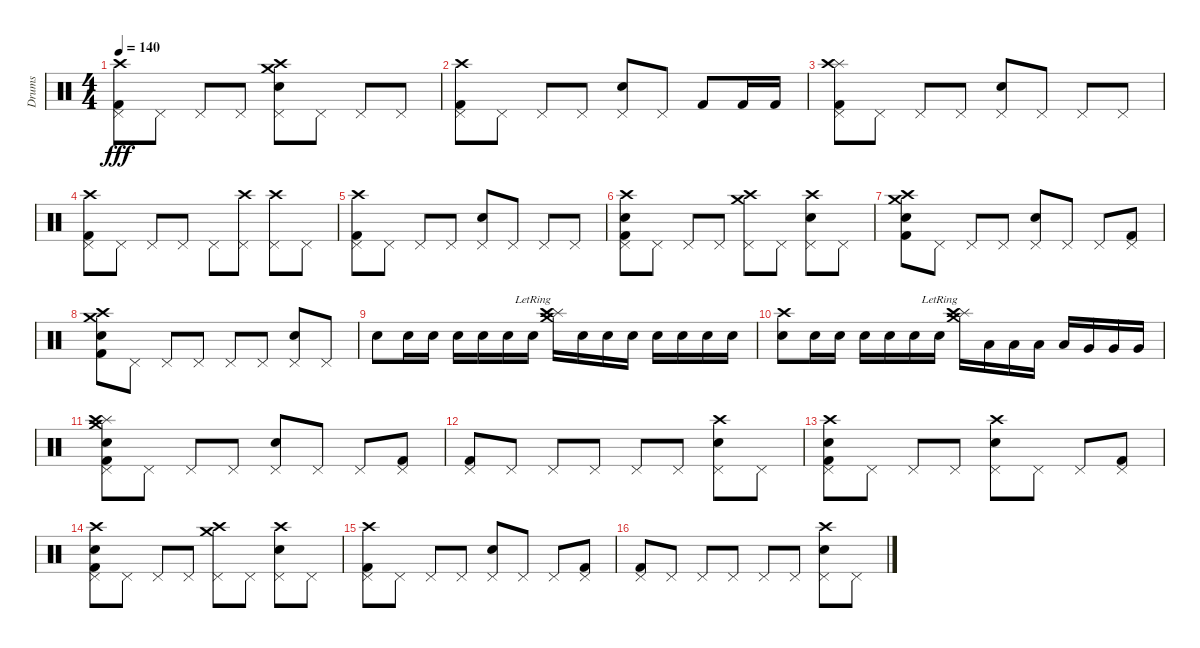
\track ("Drums" "Drums") {instrument percussion}
\staff {score}
\articulation defaults
\ts (4 4)
\tempo 140
\clef neutral
\ks c
("Crash high (hit)" "Pedal Hi-Hat (hit)" "Kick (hit) 2").8{dy fff} "Pedal Hi-Hat (hit)".8 "Pedal Hi-Hat (hit)".8 "Pedal Hi-Hat (hit)".8 ("Crash medium (hit)" "Crash high (hit)" "Pedal Hi-Hat (hit)" "Snare (hit) 2").8 "Pedal Hi-Hat (hit)".8 "Pedal Hi-Hat (hit)".8 "Pedal Hi-Hat (hit)".8 |
("Crash high (hit)" "Pedal Hi-Hat (hit)" "Kick (hit) 2").8 "Pedal Hi-Hat (hit)".8 "Pedal Hi-Hat (hit)".8 "Pedal Hi-Hat (hit)".8 ("Pedal Hi-Hat (hit)" "Snare (hit) 2").8 "Pedal Hi-Hat (hit)".8 "Kick (hit) 2".8 "Kick (hit) 2".16 "Kick (hit) 2".16 |
("Splash (hit)" "Crash high (hit)" "Pedal Hi-Hat (hit)" "Kick (hit) 2").8 "Pedal Hi-Hat (hit)".8 "Pedal Hi-Hat (hit)".8 "Pedal Hi-Hat (hit)".8 ("Pedal Hi-Hat (hit)" "Snare (hit) 2").8 "Pedal Hi-Hat (hit)".8 "Pedal Hi-Hat (hit)".8 "Pedal Hi-Hat (hit)".8 |
("Crash high (hit)" "Pedal Hi-Hat (hit)" "Kick (hit) 2").8 "Pedal Hi-Hat (hit)".8 "Pedal Hi-Hat (hit)".8 "Pedal Hi-Hat (hit)".8 "Pedal Hi-Hat (hit)".8 ("Pedal Hi-Hat (hit)" "Crash high (hit)").8 ("Pedal Hi-Hat (hit)" "Crash high (hit)").8 "Pedal Hi-Hat (hit)".8 |
("Crash high (hit)" "Pedal Hi-Hat (hit)" "Kick (hit) 2").8 "Pedal Hi-Hat (hit)".8 "Pedal Hi-Hat (hit)".8 "Pedal Hi-Hat (hit)".8 ("Pedal Hi-Hat (hit)" "Snare (hit) 2").8 "Pedal Hi-Hat (hit)".8 "Pedal Hi-Hat (hit)".8 "Pedal Hi-Hat (hit)".8 |
("Crash high (hit)" "Pedal Hi-Hat (hit)" "Snare (hit) 2" "Kick (hit) 2").8 "Pedal Hi-Hat (hit)".8 "Pedal Hi-Hat (hit)".8 "Pedal Hi-Hat (hit)".8 ("Crash medium (hit)" "Crash high (hit)" "Pedal Hi-Hat (hit)").8 "Pedal Hi-Hat (hit)".8 ("Crash high (hit)" "Pedal Hi-Hat (hit)" "Snare (hit) 2").8 "Pedal Hi-Hat (hit)".8 |
("Crash medium (hit)" "Crash high (hit)" "Snare (hit) 2" "Kick (hit) 2").8 "Pedal Hi-Hat (hit)".8 "Pedal Hi-Hat (hit)".8 "Pedal Hi-Hat (hit)".8 ("Pedal Hi-Hat (hit)" "Snare (hit) 2").8 "Pedal Hi-Hat (hit)".8 "Pedal Hi-Hat (hit)".8 ("Pedal Hi-Hat (hit)" "Kick (hit) 2").8 |
("Crash medium (hit)" "Crash high (hit)" "Snare (hit) 2" "Kick (hit) 2").8 "Pedal Hi-Hat (hit)".8 "Pedal Hi-Hat (hit)".8 "Pedal Hi-Hat (hit)".8 "Pedal Hi-Hat (hit)".8 "Pedal Hi-Hat (hit)".8 ("Pedal Hi-Hat (hit)" "Snare (hit) 2").8 "Pedal Hi-Hat (hit)".8 |
"Snare (hit) 2".8 "Snare (hit) 2".16 "Snare (hit) 2".16 "Snare (hit) 2".16 "Snare (hit) 2".16 "Snare (hit) 2".16 "Snare (hit) 2"{lr}.16 ("Crash medium (hit)" "Splash (hit)" "Crash high (hit)").16 "Snare (hit) 2".16 "Snare (hit) 2".16 "Snare (hit) 2".16 "Snare (hit) 2".16 "Snare (hit) 2".16 "Snare (hit) 2".16 "Snare (hit) 2".16 |
("Crash high (hit)" "Snare (hit) 2").8 "Snare (hit) 2".16 "Snare (hit) 2".16 "Snare (hit) 2".16 "Snare (hit) 2".16 "Snare (hit) 2".16 "Snare (hit) 2"{lr}.16 ("Crash medium (hit)" "Splash (hit)" "Crash high (hit)").16 "Low Floor Tom (hit)".16 "Low Floor Tom (hit)".16 "Low Floor Tom (hit)".16 "Low Floor Tom (hit)".16 "Very Low Tom (hit)".16 "Very Low Tom (hit)".16 "Very Low Tom (hit)".16 |
("Crash medium (hit)" "Splash (hit)" "Pedal Hi-Hat (hit)" "Crash high (hit)" "Snare (hit) 2" "Kick (hit) 2").8 "Pedal Hi-Hat (hit)".8 "Pedal Hi-Hat (hit)".8 "Pedal Hi-Hat (hit)".8 ("Pedal Hi-Hat (hit)" "Snare (hit) 2").8 "Pedal Hi-Hat (hit)".8 "Pedal Hi-Hat (hit)".8 ("Pedal Hi-Hat (hit)" "Kick (hit) 2").8 |
("Pedal Hi-Hat (hit)" "Kick (hit) 2").8 "Pedal Hi-Hat (hit)".8 "Pedal Hi-Hat (hit)".8 "Pedal Hi-Hat (hit)".8 "Pedal Hi-Hat (hit)".8 "Pedal Hi-Hat (hit)".8 ("Crash high (hit)" "Pedal Hi-Hat (hit)" "Snare (hit) 2").8 "Pedal Hi-Hat (hit)".8 |
("Crash high (hit)" "Pedal Hi-Hat (hit)" "Snare (hit) 2" "Kick (hit) 2").8 "Pedal Hi-Hat (hit)".8 "Pedal Hi-Hat (hit)".8 "Pedal Hi-Hat (hit)".8 ("Crash high (hit)" "Pedal Hi-Hat (hit)" "Snare (hit) 2").8 "Pedal Hi-Hat (hit)".8 "Pedal Hi-Hat (hit)".8 ("Pedal Hi-Hat (hit)" "Kick (hit) 2").8 |
("Crash high (hit)" "Pedal Hi-Hat (hit)" "Snare (hit) 2" "Kick (hit) 2").8 "Pedal Hi-Hat (hit)".8 "Pedal Hi-Hat (hit)".8 "Pedal Hi-Hat (hit)".8 ("Crash medium (hit)" "Crash high (hit)" "Pedal Hi-Hat (hit)").8 "Pedal Hi-Hat (hit)".8 ("Crash high (hit)" "Pedal Hi-Hat (hit)" "Snare (hit) 2").8 "Pedal Hi-Hat (hit)".8 |
("Crash high (hit)" "Pedal Hi-Hat (hit)" "Kick (hit) 2").8 "Pedal Hi-Hat (hit)".8 "Pedal Hi-Hat (hit)".8 "Pedal Hi-Hat (hit)".8 ("Pedal Hi-Hat (hit)" "Snare (hit) 2").8 "Pedal Hi-Hat (hit)".8 "Pedal Hi-Hat (hit)".8 ("Pedal Hi-Hat (hit)" "Kick (hit) 2").8 |
("Pedal Hi-Hat (hit)" "Kick (hit) 2").8 "Pedal Hi-Hat (hit)".8 "Pedal Hi-Hat (hit)".8 "Pedal Hi-Hat (hit)".8 "Pedal Hi-Hat (hit)".8 "Pedal Hi-Hat (hit)".8 ("Crash high (hit)" "Pedal Hi-Hat (hit)" "Snare (hit) 2").8 "Pedal Hi-Hat (hit)".8
